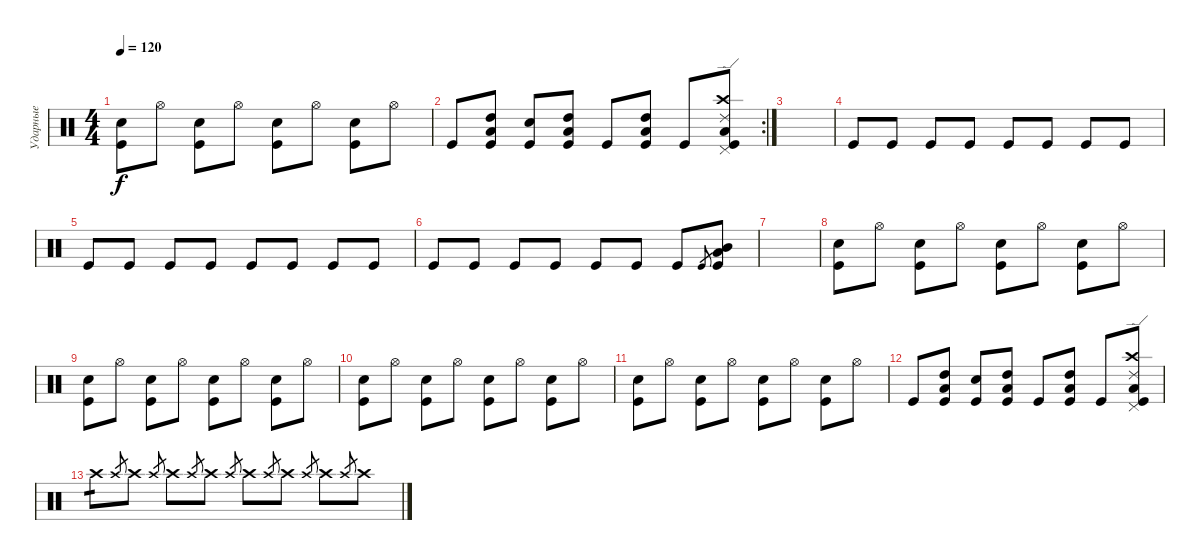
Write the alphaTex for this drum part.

\track ("Ударные" "Ударные") {instrument percussion}
\staff {score}
\articulation defaults
\ts (4 4)
\tempo 120
\clef neutral
\ks c
("Electric Snare (hit)" "Kick (hit)").8{dy f} "Hi-Hat (open)".8 ("Electric Snare (hit)" "Kick (hit)").8 "Hi-Hat (open)".8 ("Electric Snare (hit)" "Kick (hit)").8 "Hi-Hat (open)".8 ("Electric Snare (hit)" "Kick (hit)").8 "Hi-Hat (open)".8 |
\rc 2 "Kick (hit)".8
("High Tom (hit)" "Low Tom (hit)" "Kick (hit)").8 ("Snare (hit)" "Kick (hit)").8 ("High Tom (hit)" "Low Tom (hit)" "Kick (hit)").8 "Kick (hit)".8 ("High Tom (hit)" "Low Tom (hit)" "Kick (hit)").8 "Kick (hit)".8 ("Pedal Hi-Hat (hit)" "Crash high (hit)" "Low Tom (hit)" "Ride (edge) 2" "Kick (hit)").8 |
|
"Kick (hit)".8 "Kick (hit)".8 "Kick (hit)".8 "Kick (hit)".8 "Kick (hit)".8 "Kick (hit)".8 "Kick (hit)".8 "Kick (hit)".8 |
"Kick (hit)".8 "Kick (hit)".8 "Kick (hit)".8 "Kick (hit)".8 "Kick (hit)".8 "Kick (hit)".8 "Kick (hit)".8 "Kick (hit)".8 |
"Kick (hit)".8 "Kick (hit)".8 "Kick (hit)".8 "Kick (hit)".8 "Kick (hit)".8 "Kick (hit)".8 "Kick (hit)".8 "Kick (hit)".8{gr} ("Mid Tom (hit)" "Low Tom (hit)" "Kick (hit)").8 |
|
("Electric Snare (hit)" "Kick (hit)").8 "Hi-Hat (open)".8 ("Electric Snare (hit)" "Kick (hit)").8 "Hi-Hat (open)".8 ("Electric Snare (hit)" "Kick (hit)").8 "Hi-Hat (open)".8 ("Electric Snare (hit)" "Kick (hit)").8 "Hi-Hat (open)".8 |
("Electric Snare (hit)" "Kick (hit)").8 "Hi-Hat (open)".8 ("Electric Snare (hit)" "Kick (hit)").8 "Hi-Hat (open)".8 ("Electric Snare (hit)" "Kick (hit)").8 "Hi-Hat (open)".8 ("Electric Snare (hit)" "Kick (hit)").8 "Hi-Hat (open)".8 |
("Electric Snare (hit)" "Kick (hit)").8 "Hi-Hat (open)".8 ("Electric Snare (hit)" "Kick (hit)").8 "Hi-Hat (open)".8 ("Electric Snare (hit)" "Kick (hit)").8 "Hi-Hat (open)".8 ("Electric Snare (hit)" "Kick (hit)").8 "Hi-Hat (open)".8 |
("Electric Snare (hit)" "Kick (hit)").8 "Hi-Hat (open)".8 ("Electric Snare (hit)" "Kick (hit)").8 "Hi-Hat (open)".8 ("Electric Snare (hit)" "Kick (hit)").8 "Hi-Hat (open)".8 ("Electric Snare (hit)" "Kick (hit)").8 "Hi-Hat (open)".8 |
"Kick (hit)".8 ("High Tom (hit)" "Low Tom (hit)" "Kick (hit)").8 ("Snare (hit)" "Kick (hit)").8 ("High Tom (hit)" "Low Tom (hit)" "Kick (hit)").8 "Kick (hit)".8 ("High Tom (hit)" "Low Tom (hit)" "Kick (hit)").8 "Kick (hit)".8 ("Pedal Hi-Hat (hit)" "Crash high (hit)" "Low Tom (hit)" "Ride (edge) 2" "Kick (hit)").8 |
"Crash high (hit)".8{tp 1 volume 16} "Crash high (hit)".8{gr} "Crash high (hit)".8 "Crash high (hit)".8{gr} "Crash high (hit)".8 "Crash high (hit)".8{gr} "Crash high (hit)".8{volume 8} "Crash high (hit)".8{gr} "Crash high (hit)".8 "Crash high (hit)".8{gr} "Crash high (hit)".8 "Crash high (hit)".8{gr} "Crash high (hit)".8 "Crash high (hit)".8{gr} "Crash high (hit)".8{volume 5}
